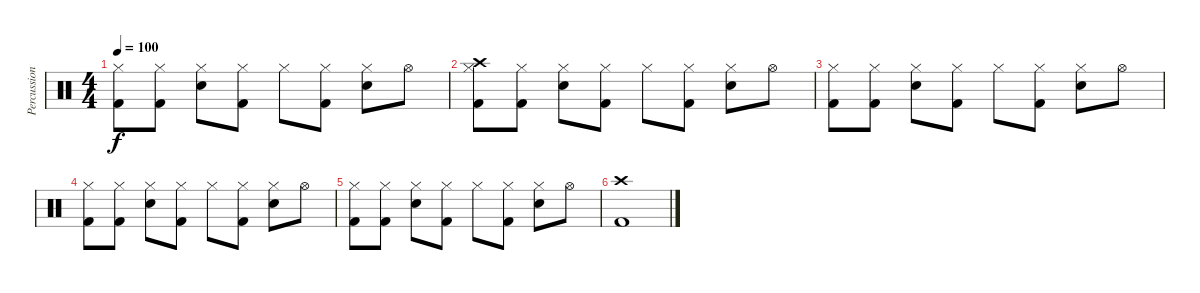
\track ("Percussion" "Percussion") {instrument percussion}
\staff {score}
\articulation defaults
\ts (4 4)
\tempo 100
\clef neutral
\ks c
("Hi-Hat (closed)" "Kick (hit) 2").8{dy f} ("Hi-Hat (closed)" "Kick (hit) 2").8 ("Hi-Hat (closed)" "Electric Snare (hit)").8 ("Hi-Hat (closed)" "Kick (hit) 2").8 "Hi-Hat (closed)".8 ("Hi-Hat (closed)" "Kick (hit) 2").8 ("Hi-Hat (closed)" "Electric Snare (hit)").8 "Hi-Hat (open)".8 |
("Crash high (hit)" "Hi-Hat (closed)" "Kick (hit) 2").8 ("Hi-Hat (closed)" "Kick (hit) 2").8 ("Hi-Hat (closed)" "Electric Snare (hit)").8 ("Hi-Hat (closed)" "Kick (hit) 2").8 "Hi-Hat (closed)".8 ("Hi-Hat (closed)" "Kick (hit) 2").8 ("Hi-Hat (closed)" "Electric Snare (hit)").8 "Hi-Hat (open)".8 |
("Hi-Hat (closed)" "Kick (hit) 2").8 ("Hi-Hat (closed)" "Kick (hit) 2").8 ("Hi-Hat (closed)" "Electric Snare (hit)").8 ("Hi-Hat (closed)" "Kick (hit) 2").8 "Hi-Hat (closed)".8 ("Hi-Hat (closed)" "Kick (hit) 2").8 ("Hi-Hat (closed)" "Electric Snare (hit)").8 "Hi-Hat (open)".8 |
("Hi-Hat (closed)" "Kick (hit) 2").8 ("Hi-Hat (closed)" "Kick (hit) 2").8 ("Hi-Hat (closed)" "Electric Snare (hit)").8 ("Hi-Hat (closed)" "Kick (hit) 2").8 "Hi-Hat (closed)".8 ("Hi-Hat (closed)" "Kick (hit) 2").8 ("Hi-Hat (closed)" "Electric Snare (hit)").8 "Hi-Hat (open)".8 |
("Hi-Hat (closed)" "Kick (hit) 2").8 ("Hi-Hat (closed)" "Kick (hit) 2").8 ("Hi-Hat (closed)" "Electric Snare (hit)").8 ("Hi-Hat (closed)" "Kick (hit) 2").8 "Hi-Hat (closed)".8 ("Hi-Hat (closed)" "Kick (hit) 2").8 ("Hi-Hat (closed)" "Electric Snare (hit)").8 "Hi-Hat (open)".8 |
("Crash high (hit)" "Kick (hit) 2").1
